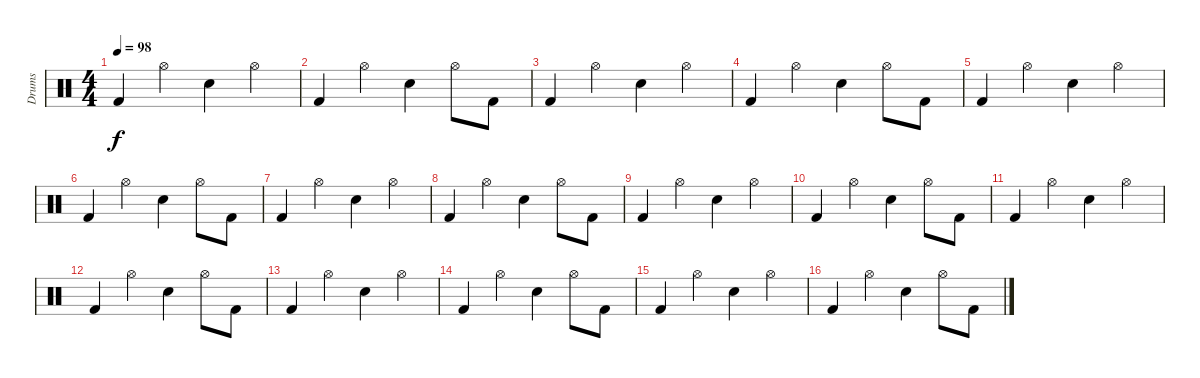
\track ("Drums" "Drums") {instrument percussion}
\staff {score}
\articulation defaults
\ts (4 4)
\tempo 98
\clef neutral
\ks c "Kick (hit) 2".4{dy f} "Hi-Hat (open)".4 "Snare (hit) 2".4 "Hi-Hat (open)".4
|
"Kick (hit) 2".4 "Hi-Hat (open)".4 "Snare (hit) 2".4 "Hi-Hat (open)".8 "Kick (hit) 2".8 |
"Kick (hit) 2".4 "Hi-Hat (open)".4 "Snare (hit) 2".4 "Hi-Hat (open)".4 |
"Kick (hit) 2".4 "Hi-Hat (open)".4 "Snare (hit) 2".4 "Hi-Hat (open)".8 "Kick (hit) 2".8 |
"Kick (hit) 2".4 "Hi-Hat (open)".4 "Snare (hit) 2".4 "Hi-Hat (open)".4 |
"Kick (hit) 2".4 "Hi-Hat (open)".4 "Snare (hit) 2".4 "Hi-Hat (open)".8 "Kick (hit) 2".8 |
"Kick (hit) 2".4 "Hi-Hat (open)".4 "Snare (hit) 2".4 "Hi-Hat (open)".4 |
"Kick (hit) 2".4 "Hi-Hat (open)".4 "Snare (hit) 2".4 "Hi-Hat (open)".8 "Kick (hit) 2".8 |
"Kick (hit) 2".4 "Hi-Hat (open)".4 "Snare (hit) 2".4 "Hi-Hat (open)".4 |
"Kick (hit) 2".4 "Hi-Hat (open)".4 "Snare (hit) 2".4 "Hi-Hat (open)".8 "Kick (hit) 2".8 |
"Kick (hit) 2".4 "Hi-Hat (open)".4 "Snare (hit) 2".4 "Hi-Hat (open)".4 |
"Kick (hit) 2".4 "Hi-Hat (open)".4 "Snare (hit) 2".4 "Hi-Hat (open)".8 "Kick (hit) 2".8 |
"Kick (hit) 2".4 "Hi-Hat (open)".4 "Snare (hit) 2".4 "Hi-Hat (open)".4 |
"Kick (hit) 2".4 "Hi-Hat (open)".4 "Snare (hit) 2".4 "Hi-Hat (open)".8 "Kick (hit) 2".8 |
"Kick (hit) 2".4 "Hi-Hat (open)".4 "Snare (hit) 2".4 "Hi-Hat (open)".4 |
"Kick (hit) 2".4 "Hi-Hat (open)".4 "Snare (hit) 2".4 "Hi-Hat (open)".8 "Kick (hit) 2".8
